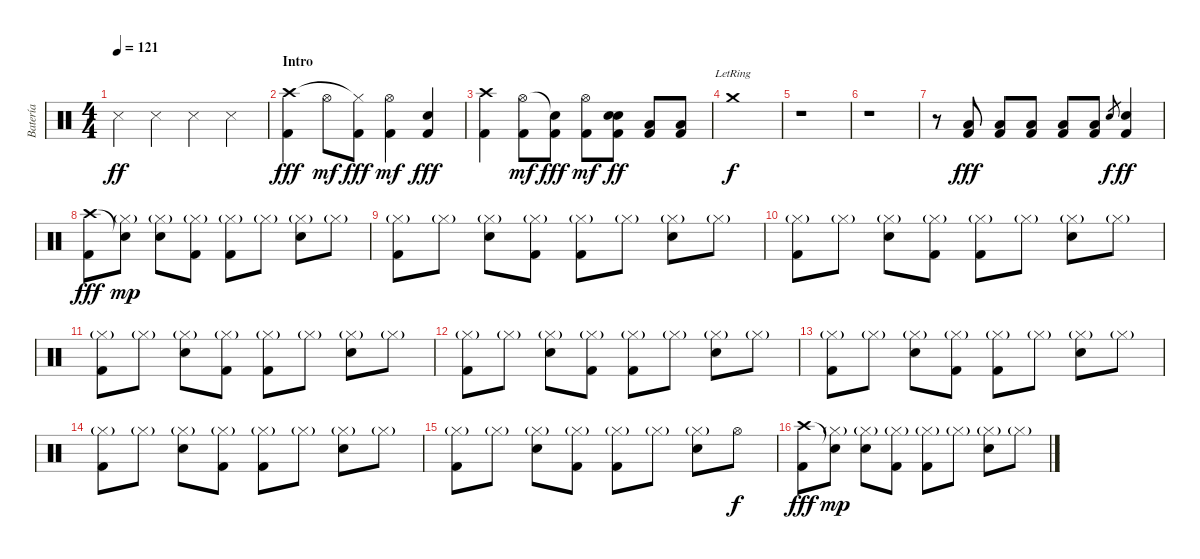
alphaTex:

\track ("Batería" "Batería") {instrument percussion}
\staff {score}
\articulation defaults
\ts (4 4)
\tempo 121
\clef neutral
\ks c "Snare (side stick) 3".4{dy ff} "Snare (side stick) 3".4 "Snare (side stick) 3".4 "Snare (side stick) 3".4
|
\section ("" "Intro")
("Kick (hit) 2" "Crash high (hit)").4{dy fff} "Hi-Hat (open)".8{dy mf} ("Kick (hit) 2" "Hi-Hat (closed)"{t}).8{dy fff} ("Kick (hit) 2" "Hi-Hat (open)").4{dy mf} ("Kick (hit) 2" "Snare (hit) 2").4{dy fff} |
("Kick (hit) 2" "Crash high (hit)").4 ("Kick (hit) 2" "Hi-Hat (open)").8{dy mf} ("Kick (hit) 2" "Snare (hit)"{t}).8{dy fff} ("Kick (hit) 2" "Hi-Hat (open)").8{dy mf} ("Kick (hit) 2" "Snare (hit) 2" "Snare (hit)").8{dy ff} ("Kick (hit) 2" "Low Tom (hit)").8 ("Kick (hit) 2" "Low Floor Tom (hit)").8 |
"Crash medium (hit)"{lr}.1{dy f} |
r.1 |
r.1 |
r.8 ("Kick (hit) 2" "Low Floor Tom (hit)").8{dy fff} ("Kick (hit) 2" "Low Floor Tom (hit)").8 ("Kick (hit) 2" "Low Floor Tom (hit)").8 ("Kick (hit) 2" "Low Floor Tom (hit)").8 ("Kick (hit) 2" "Low Floor Tom (hit)").8 "Snare (hit) 2".8{gr dy f} ("Kick (hit) 2" "Snare (hit) 2").4{dy ff} |
("Kick (hit) 2" "Crash high (hit)").8{dy fff} ("Hi-Hat (closed)"{g} "Snare (hit)"{t}).8{dy mp} ("Snare (hit) 2" "Hi-Hat (closed)"{g}).8 ("Kick (hit) 2" "Hi-Hat (closed)"{g}).8 ("Kick (hit) 2" "Hi-Hat (closed)"{g}).8 "Hi-Hat (closed)"{g}.8 ("Snare (hit) 2" "Hi-Hat (closed)"{g}).8 "Hi-Hat (closed)"{g}.8 |
("Kick (hit) 2" "Hi-Hat (closed)"{g}).8 "Hi-Hat (closed)"{g}.8 ("Snare (hit) 2" "Hi-Hat (closed)"{g}).8 ("Kick (hit) 2" "Hi-Hat (closed)"{g}).8 ("Kick (hit) 2" "Hi-Hat (closed)"{g}).8 "Hi-Hat (closed)"{g}.8 ("Snare (hit) 2" "Hi-Hat (closed)"{g}).8 "Hi-Hat (closed)"{g}.8 |
("Kick (hit) 2" "Hi-Hat (closed)"{g}).8 "Hi-Hat (closed)"{g}.8 ("Snare (hit) 2" "Hi-Hat (closed)"{g}).8 ("Kick (hit) 2" "Hi-Hat (closed)"{g}).8 ("Kick (hit) 2" "Hi-Hat (closed)"{g}).8 "Hi-Hat (closed)"{g}.8 ("Snare (hit) 2" "Hi-Hat (closed)"{g}).8 "Hi-Hat (closed)"{g}.8 |
("Kick (hit) 2" "Hi-Hat (closed)"{g}).8 "Hi-Hat (closed)"{g}.8 ("Snare (hit) 2" "Hi-Hat (closed)"{g}).8 ("Kick (hit) 2" "Hi-Hat (closed)"{g}).8 ("Kick (hit) 2" "Hi-Hat (closed)"{g}).8 "Hi-Hat (closed)"{g}.8 ("Snare (hit) 2" "Hi-Hat (closed)"{g}).8 "Hi-Hat (closed)"{g}.8 |
("Kick (hit) 2" "Hi-Hat (closed)"{g}).8 "Hi-Hat (closed)"{g}.8 ("Snare (hit) 2" "Hi-Hat (closed)"{g}).8 ("Kick (hit) 2" "Hi-Hat (closed)"{g}).8 ("Kick (hit) 2" "Hi-Hat (closed)"{g}).8 "Hi-Hat (closed)"{g}.8 ("Snare (hit) 2" "Hi-Hat (closed)"{g}).8 "Hi-Hat (closed)"{g}.8 |
("Kick (hit) 2" "Hi-Hat (closed)"{g}).8 "Hi-Hat (closed)"{g}.8 ("Snare (hit) 2" "Hi-Hat (closed)"{g}).8 ("Kick (hit) 2" "Hi-Hat (closed)"{g}).8 ("Kick (hit) 2" "Hi-Hat (closed)"{g}).8 "Hi-Hat (closed)"{g}.8 ("Snare (hit) 2" "Hi-Hat (closed)"{g}).8 "Hi-Hat (closed)"{g}.8 |
("Kick (hit) 2" "Hi-Hat (closed)"{g}).8 "Hi-Hat (closed)"{g}.8 ("Snare (hit) 2" "Hi-Hat (closed)"{g}).8 ("Kick (hit) 2" "Hi-Hat (closed)"{g}).8 ("Kick (hit) 2" "Hi-Hat (closed)"{g}).8 "Hi-Hat (closed)"{g}.8 ("Snare (hit) 2" "Hi-Hat (closed)"{g}).8 "Hi-Hat (closed)"{g}.8 |
("Kick (hit) 2" "Hi-Hat (closed)"{g}).8 "Hi-Hat (closed)"{g}.8 ("Snare (hit) 2" "Hi-Hat (closed)"{g}).8 ("Kick (hit) 2" "Hi-Hat (closed)"{g}).8 ("Kick (hit) 2" "Hi-Hat (closed)"{g}).8 "Hi-Hat (closed)"{g}.8 ("Snare (hit) 2" "Hi-Hat (closed)"{g}).8 "Hi-Hat (open)".8{dy f} |
("Kick (hit) 2" "Crash high (hit)").8{dy fff} ("Hi-Hat (closed)"{g} "Snare (hit)"{t}).8{dy mp} ("Snare (hit) 2" "Hi-Hat (closed)"{g}).8 ("Kick (hit) 2" "Hi-Hat (closed)"{g}).8 ("Kick (hit) 2" "Hi-Hat (closed)"{g}).8 "Hi-Hat (closed)"{g}.8 ("Snare (hit) 2" "Hi-Hat (closed)"{g}).8 "Hi-Hat (closed)"{g}.8
